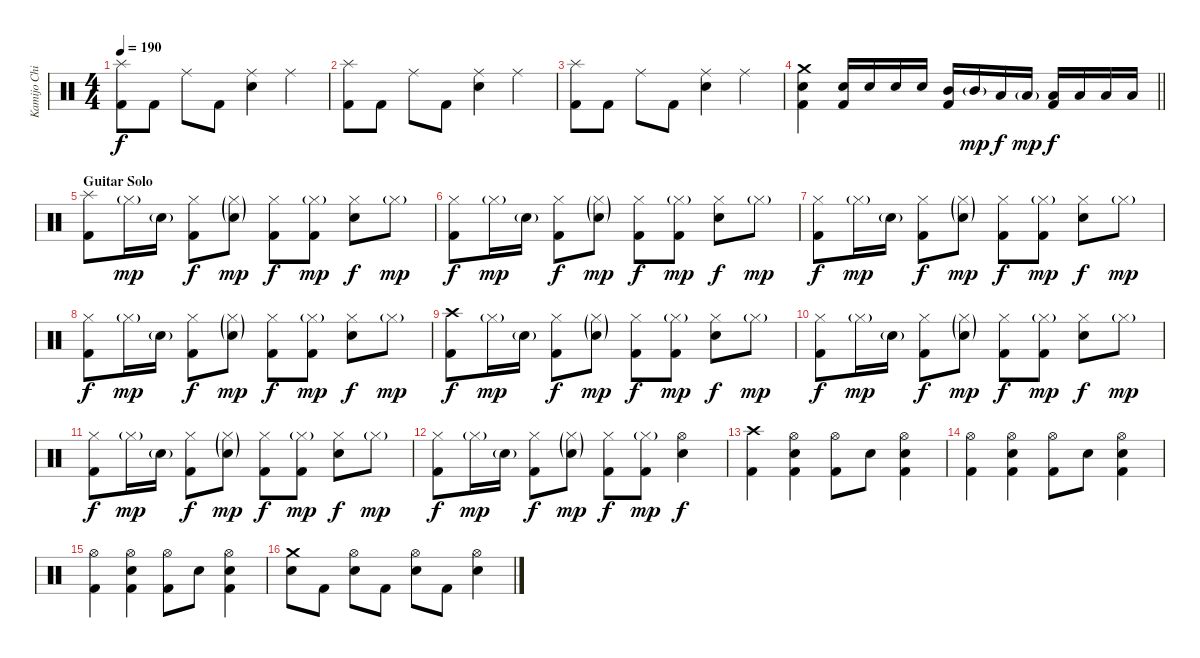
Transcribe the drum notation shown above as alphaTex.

\track ("Kamijo Chihiro" "Kamijo Chi") {instrument percussion}
\staff {score}
\articulation defaults
\ts (4 4)
\tempo 190
\clef neutral
\ks c
("Splash (hit)" "Kick (hit) 2").8{dy f} "Kick (hit) 2".8 "Ride (middle)".8 "Kick (hit) 2".8 ("Ride (middle)" "Snare (hit) 2").4 "Ride (middle)".4 |
("Splash (hit)" "Kick (hit) 2").8 "Kick (hit) 2".8 "Ride (middle)".8 "Kick (hit) 2".8 ("Ride (middle)" "Snare (hit) 2").4 "Ride (middle)".4 |
("Splash (hit)" "Kick (hit) 2").8 "Kick (hit) 2".8 "Ride (middle)".8 "Kick (hit) 2".8 ("Ride (middle)" "Snare (hit) 2").4 "Ride (middle)".4 |
\barLineRight lightlight
("Crash medium (hit)" "Snare (hit) 2" "Kick (hit) 2").4 ("Snare (hit) 2" "Kick (hit) 2").16 "Snare (hit) 2".16 "Snare (hit) 2".16 "Snare (hit) 2".16 ("Mid Tom (hit)" "Kick (hit) 2").16 "Mid Tom (hit)"{g}.16{dy mp} "Low Tom (hit)".16{dy f} "Low Tom (hit)"{g}.16{dy mp} ("Low Tom (hit)" "Kick (hit) 2").16{dy f} "Low Tom (hit)".16 "Low Tom (hit)".16 "Low Tom (hit)".16 |
\section ("" "Guitar Solo")
("Splash (hit)" "Kick (hit) 2").8 "Hi-Hat (closed)"{g}.16{dy mp} "Snare (hit) 2"{g}.16 ("Hi-Hat (closed)" "Kick (hit) 2").8{dy f} ("Hi-Hat (closed)"{g} "Snare (hit) 2"{g}).8{dy mp} ("Hi-Hat (closed)" "Kick (hit) 2").8{dy f} ("Hi-Hat (closed)"{g} "Kick (hit) 2").8{dy mp} ("Hi-Hat (closed)" "Snare (hit) 2").8{dy f} "Hi-Hat (closed)"{g}.8{dy mp} |
("Hi-Hat (closed)" "Kick (hit) 2").8{dy f} "Hi-Hat (closed)"{g}.16{dy mp} "Snare (hit) 2"{g}.16 ("Hi-Hat (closed)" "Kick (hit) 2").8{dy f} ("Hi-Hat (closed)"{g} "Snare (hit) 2"{g}).8{dy mp} ("Hi-Hat (closed)" "Kick (hit) 2").8{dy f} ("Hi-Hat (closed)"{g} "Kick (hit) 2").8{dy mp} ("Hi-Hat (closed)" "Snare (hit) 2").8{dy f} "Hi-Hat (closed)"{g}.8{dy mp} |
("Hi-Hat (closed)" "Kick (hit) 2").8{dy f} "Hi-Hat (closed)"{g}.16{dy mp} "Snare (hit) 2"{g}.16 ("Hi-Hat (closed)" "Kick (hit) 2").8{dy f} ("Hi-Hat (closed)"{g} "Snare (hit) 2"{g}).8{dy mp} ("Hi-Hat (closed)" "Kick (hit) 2").8{dy f} ("Hi-Hat (closed)"{g} "Kick (hit) 2").8{dy mp} ("Hi-Hat (closed)" "Snare (hit) 2").8{dy f} "Hi-Hat (closed)"{g}.8{dy mp} |
("Hi-Hat (closed)" "Kick (hit) 2").8{dy f} "Hi-Hat (closed)"{g}.16{dy mp} "Snare (hit) 2"{g}.16 ("Hi-Hat (closed)" "Kick (hit) 2").8{dy f} ("Hi-Hat (closed)"{g} "Snare (hit) 2"{g}).8{dy mp} ("Hi-Hat (closed)" "Kick (hit) 2").8{dy f} ("Hi-Hat (closed)"{g} "Kick (hit) 2").8{dy mp} ("Hi-Hat (closed)" "Snare (hit) 2").8{dy f} "Hi-Hat (closed)"{g}.8{dy mp} |
("Crash high (hit)" "Kick (hit) 2").8{dy f} "Hi-Hat (closed)"{g}.16{dy mp} "Snare (hit) 2"{g}.16 ("Hi-Hat (closed)" "Kick (hit) 2").8{dy f} ("Hi-Hat (closed)"{g} "Snare (hit) 2"{g}).8{dy mp} ("Hi-Hat (closed)" "Kick (hit) 2").8{dy f} ("Hi-Hat (closed)"{g} "Kick (hit) 2").8{dy mp} ("Hi-Hat (closed)" "Snare (hit) 2").8{dy f} "Hi-Hat (closed)"{g}.8{dy mp} |
("Hi-Hat (closed)" "Kick (hit) 2").8{dy f} "Hi-Hat (closed)"{g}.16{dy mp} "Snare (hit) 2"{g}.16 ("Hi-Hat (closed)" "Kick (hit) 2").8{dy f} ("Hi-Hat (closed)"{g} "Snare (hit) 2"{g}).8{dy mp} ("Hi-Hat (closed)" "Kick (hit) 2").8{dy f} ("Hi-Hat (closed)"{g} "Kick (hit) 2").8{dy mp} ("Hi-Hat (closed)" "Snare (hit) 2").8{dy f} "Hi-Hat (closed)"{g}.8{dy mp} |
("Hi-Hat (closed)" "Kick (hit) 2").8{dy f} "Hi-Hat (closed)"{g}.16{dy mp} "Snare (hit) 2"{g}.16 ("Hi-Hat (closed)" "Kick (hit) 2").8{dy f} ("Hi-Hat (closed)"{g} "Snare (hit) 2"{g}).8{dy mp} ("Hi-Hat (closed)" "Kick (hit) 2").8{dy f} ("Hi-Hat (closed)"{g} "Kick (hit) 2").8{dy mp} ("Hi-Hat (closed)" "Snare (hit) 2").8{dy f} "Hi-Hat (closed)"{g}.8{dy mp} |
("Hi-Hat (closed)" "Kick (hit) 2").8{dy f} "Hi-Hat (closed)"{g}.16{dy mp} "Snare (hit) 2"{g}.16 ("Hi-Hat (closed)" "Kick (hit) 2").8{dy f} ("Hi-Hat (closed)"{g} "Snare (hit) 2"{g}).8{dy mp} ("Hi-Hat (closed)" "Kick (hit) 2").8{dy f} ("Hi-Hat (closed)"{g} "Kick (hit) 2").8{dy mp} ("Hi-Hat (open)" "Snare (hit) 2").4{dy f} |
("Crash high (hit)" "Kick (hit) 2").4 ("Hi-Hat (open)" "Snare (hit) 2" "Kick (hit) 2").4 ("Hi-Hat (open)" "Kick (hit) 2").8 "Snare (hit) 2".8 ("Hi-Hat (open)" "Snare (hit) 2" "Kick (hit) 2").4 |
("Hi-Hat (open)" "Kick (hit) 2").4 ("Hi-Hat (open)" "Snare (hit) 2" "Kick (hit) 2").4 ("Hi-Hat (open)" "Kick (hit) 2").8 "Snare (hit) 2".8 ("Hi-Hat (open)" "Snare (hit) 2" "Kick (hit) 2").4 |
("Hi-Hat (open)" "Kick (hit) 2").4 ("Hi-Hat (open)" "Snare (hit) 2" "Kick (hit) 2").4 ("Hi-Hat (open)" "Kick (hit) 2").8 "Snare (hit) 2".8 ("Hi-Hat (open)" "Snare (hit) 2" "Kick (hit) 2").4 |
("Crash medium (hit)" "Snare (hit) 2").8 "Kick (hit) 2".8 ("Hi-Hat (open)" "Snare (hit) 2").8 "Kick (hit) 2".8 ("Hi-Hat (open)" "Snare (hit) 2").8 "Kick (hit) 2".8 ("Hi-Hat (open)" "Snare (hit) 2").4
